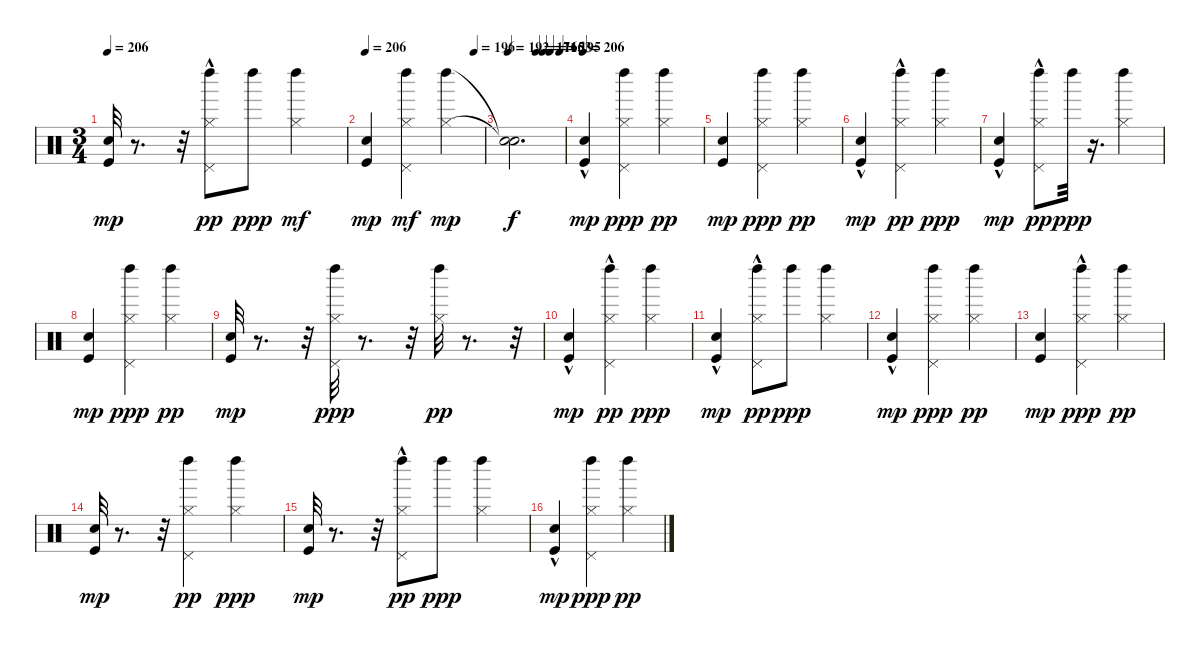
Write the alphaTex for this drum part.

\track "" {instrument percussion}
\staff {score}
\articulation defaults
\ts (3 4)
\tempo 206
\clef neutral
\ks c
("Kick (hit)" "Snare (hit)").32{dy mp} r.8{d} r.32 ("Pedal Hi-Hat (hit)"{hac} "Hi-Hat (closed)" "Left Maraca (hit)").8{dy pp} "Left Maraca (hit)".8{dy ppp} ("Left Maraca (hit)" "Hi-Hat (closed)").4{dy mf} |
\tempo 206
\tempo (196 0.9166666666666666)
("Kick (hit)" "Snare (hit)").4{dy mp} ("Pedal Hi-Hat (hit)" "Left Maraca (hit)" "Hi-Hat (closed)").4{dy mf} ("Left Maraca (hit)" "Hi-Hat (closed)").4{dy mp} |
\tempo 192
\tempo (171 0.5)
\tempo (165 0.625)
\tempo (163 0.75)
\tempo (195 0.9166666666666666)
("Snare (hit)"{t} "Snare (hit)"{t}).2{d dy f} |
\tempo 206
("Kick (hit)"{hac} "Snare (hit)").4{dy mp} ("Pedal Hi-Hat (hit)" "Hi-Hat (closed)" "Left Maraca (hit)").4{dy ppp} ("Hi-Hat (closed)" "Left Maraca (hit)").4{dy pp} |
("Kick (hit)" "Snare (hit)").4{dy mp} ("Pedal Hi-Hat (hit)" "Hi-Hat (closed)" "Left Maraca (hit)").4{dy ppp} ("Hi-Hat (closed)" "Left Maraca (hit)").4{dy pp} |
("Kick (hit)"{hac} "Snare (hit)"{hac}).4{dy mp} ("Pedal Hi-Hat (hit)"{hac} "Hi-Hat (closed)" "Left Maraca (hit)").4{dy pp} ("Hi-Hat (closed)" "Left Maraca (hit)").4{dy ppp} |
("Kick (hit)" "Snare (hit)"{hac}).4{dy mp} ("Pedal Hi-Hat (hit)"{hac} "Hi-Hat (closed)" "Left Maraca (hit)").8{dy pp} "Left Maraca (hit)".32{dy ppp} r.16{d} ("Hi-Hat (closed)" "Left Maraca (hit)").4 |
("Kick (hit)" "Snare (hit)").4{dy mp} ("Pedal Hi-Hat (hit)" "Hi-Hat (closed)" "Left Maraca (hit)").4{dy ppp} ("Hi-Hat (closed)" "Left Maraca (hit)").4{dy pp} |
("Kick (hit)" "Snare (hit)").32{dy mp} r.8{d} r.32 ("Pedal Hi-Hat (hit)" "Hi-Hat (closed)" "Left Maraca (hit)").32{dy ppp} r.8{d} r.32 ("Hi-Hat (closed)" "Left Maraca (hit)").32{dy pp} r.8{d} r.32 |
("Kick (hit)"{hac} "Snare (hit)"{hac}).4{dy mp} ("Pedal Hi-Hat (hit)"{hac} "Hi-Hat (closed)" "Left Maraca (hit)").4{dy pp} ("Hi-Hat (closed)" "Left Maraca (hit)").4{dy ppp} |
("Kick (hit)"{hac} "Snare (hit)"{hac}).4{dy mp} ("Pedal Hi-Hat (hit)"{hac} "Hi-Hat (closed)" "Left Maraca (hit)").8{dy pp} "Left Maraca (hit)".8{dy ppp} ("Hi-Hat (closed)" "Left Maraca (hit)").4 |
("Kick (hit)" "Snare (hit)"{hac}).4{dy mp} ("Pedal Hi-Hat (hit)" "Hi-Hat (closed)" "Left Maraca (hit)").4{dy ppp} ("Hi-Hat (closed)" "Left Maraca (hit)").4{dy pp} |
("Kick (hit)" "Snare (hit)").4{dy mp} ("Pedal Hi-Hat (hit)"{hac} "Hi-Hat (closed)" "Left Maraca (hit)").4{dy ppp} ("Hi-Hat (closed)" "Left Maraca (hit)").4{dy pp} |
("Kick (hit)" "Snare (hit)").32{dy mp} r.8{d} r.32 ("Pedal Hi-Hat (hit)" "Hi-Hat (closed)" "Left Maraca (hit)").4{dy pp} ("Hi-Hat (closed)" "Left Maraca (hit)").4{dy ppp} |
("Kick (hit)" "Snare (hit)").32{dy mp} r.8{d} r.32 ("Pedal Hi-Hat (hit)"{hac} "Hi-Hat (closed)" "Left Maraca (hit)").8{dy pp} "Left Maraca (hit)".8{dy ppp} ("Hi-Hat (closed)" "Left Maraca (hit)").4 |
("Kick (hit)" "Snare (hit)"{hac}).4{dy mp} ("Pedal Hi-Hat (hit)" "Hi-Hat (closed)" "Left Maraca (hit)").4{dy ppp} ("Hi-Hat (closed)" "Left Maraca (hit)").4{dy pp}
